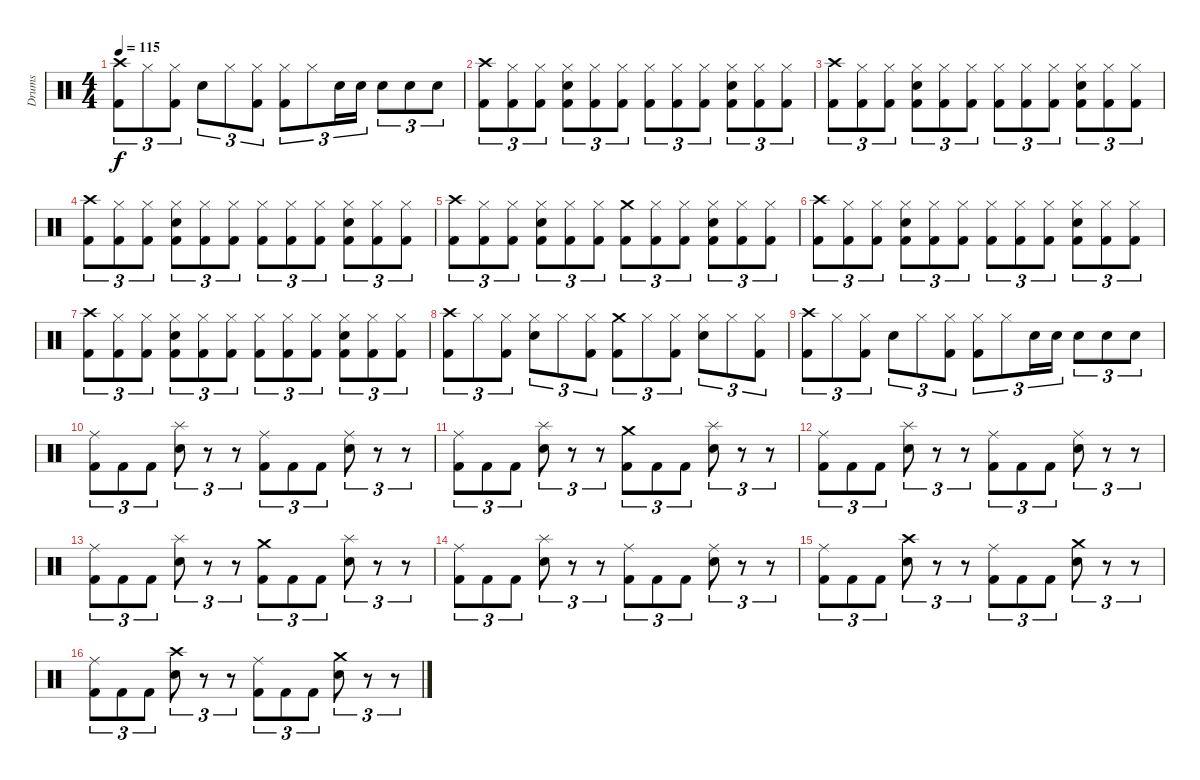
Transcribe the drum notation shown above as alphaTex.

\track ("Drums" "Drums") {instrument percussion}
\staff {score}
\articulation defaults
\ts (4 4)
\tempo 115
\clef neutral
\ks c
("Crash high (hit)" "Kick (hit) 2").8{tu (3 2) dy f} "Hi-Hat (closed)".8{tu (3 2)} ("Hi-Hat (closed)" "Kick (hit) 2").8{tu (3 2)} "Snare (hit) 2".8{tu (3 2)} "Hi-Hat (closed)".8{tu (3 2)} ("Hi-Hat (closed)" "Kick (hit) 2").8{tu (3 2)} ("Hi-Hat (closed)" "Kick (hit) 2").8{tu (3 2)} "Hi-Hat (closed)".8{tu (3 2)} "Snare (hit) 2".16{tu (3 2)} "Snare (hit) 2".16{tu (3 2)} "Snare (hit) 2".8{tu (3 2)} "Snare (hit) 2".8{tu (3 2)} "Snare (hit) 2".8{tu (3 2)} |
("Crash high (hit)" "Kick (hit) 2").8{tu (3 2)} ("Hi-Hat (closed)" "Kick (hit) 2").8{tu (3 2)} ("Hi-Hat (closed)" "Kick (hit) 2").8{tu (3 2)} ("Hi-Hat (closed)" "Snare (hit) 2" "Kick (hit) 2").8{tu (3 2)} ("Hi-Hat (closed)" "Kick (hit) 2").8{tu (3 2)} ("Hi-Hat (closed)" "Kick (hit) 2").8{tu (3 2)} ("Hi-Hat (closed)" "Kick (hit) 2").8{tu (3 2)} ("Hi-Hat (closed)" "Kick (hit) 2").8{tu (3 2)} ("Hi-Hat (closed)" "Kick (hit) 2").8{tu (3 2)} ("Hi-Hat (closed)" "Snare (hit) 2" "Kick (hit) 2").8{tu (3 2)} ("Hi-Hat (closed)" "Kick (hit) 2").8{tu (3 2)} ("Hi-Hat (closed)" "Kick (hit) 2").8{tu (3 2)} |
("Crash high (hit)" "Kick (hit) 2").8{tu (3 2)} ("Hi-Hat (closed)" "Kick (hit) 2").8{tu (3 2)} ("Hi-Hat (closed)" "Kick (hit) 2").8{tu (3 2)} ("Hi-Hat (closed)" "Snare (hit) 2" "Kick (hit) 2").8{tu (3 2)} ("Hi-Hat (closed)" "Kick (hit) 2").8{tu (3 2)} ("Hi-Hat (closed)" "Kick (hit) 2").8{tu (3 2)} ("Hi-Hat (closed)" "Kick (hit) 2").8{tu (3 2)} ("Hi-Hat (closed)" "Kick (hit) 2").8{tu (3 2)} ("Hi-Hat (closed)" "Kick (hit) 2").8{tu (3 2)} ("Hi-Hat (closed)" "Snare (hit) 2" "Kick (hit) 2").8{tu (3 2)} ("Hi-Hat (closed)" "Kick (hit) 2").8{tu (3 2)} ("Hi-Hat (closed)" "Kick (hit) 2").8{tu (3 2)} |
("Crash high (hit)" "Kick (hit) 2").8{tu (3 2)} ("Hi-Hat (closed)" "Kick (hit) 2").8{tu (3 2)} ("Hi-Hat (closed)" "Kick (hit) 2").8{tu (3 2)} ("Hi-Hat (closed)" "Snare (hit) 2" "Kick (hit) 2").8{tu (3 2)} ("Hi-Hat (closed)" "Kick (hit) 2").8{tu (3 2)} ("Hi-Hat (closed)" "Kick (hit) 2").8{tu (3 2)} ("Hi-Hat (closed)" "Kick (hit) 2").8{tu (3 2)} ("Hi-Hat (closed)" "Kick (hit) 2").8{tu (3 2)} ("Hi-Hat (closed)" "Kick (hit) 2").8{tu (3 2)} ("Hi-Hat (closed)" "Snare (hit) 2" "Kick (hit) 2").8{tu (3 2)} ("Hi-Hat (closed)" "Kick (hit) 2").8{tu (3 2)} ("Hi-Hat (closed)" "Kick (hit) 2").8{tu (3 2)} |
("Crash high (hit)" "Kick (hit) 2").8{tu (3 2)} ("Hi-Hat (closed)" "Kick (hit) 2").8{tu (3 2)} ("Hi-Hat (closed)" "Kick (hit) 2").8{tu (3 2)} ("Hi-Hat (closed)" "Snare (hit) 2" "Kick (hit) 2").8{tu (3 2)} ("Hi-Hat (closed)" "Kick (hit) 2").8{tu (3 2)} ("Hi-Hat (closed)" "Kick (hit) 2").8{tu (3 2)} ("Crash medium (hit)" "Kick (hit) 2").8{tu (3 2)} ("Hi-Hat (closed)" "Kick (hit) 2").8{tu (3 2)} ("Hi-Hat (closed)" "Kick (hit) 2").8{tu (3 2)} ("Hi-Hat (closed)" "Snare (hit) 2" "Kick (hit) 2").8{tu (3 2)} ("Hi-Hat (closed)" "Kick (hit) 2").8{tu (3 2)} ("Hi-Hat (closed)" "Kick (hit) 2").8{tu (3 2)} |
("Crash high (hit)" "Kick (hit) 2").8{tu (3 2)} ("Hi-Hat (closed)" "Kick (hit) 2").8{tu (3 2)} ("Hi-Hat (closed)" "Kick (hit) 2").8{tu (3 2)} ("Hi-Hat (closed)" "Snare (hit) 2" "Kick (hit) 2").8{tu (3 2)} ("Hi-Hat (closed)" "Kick (hit) 2").8{tu (3 2)} ("Hi-Hat (closed)" "Kick (hit) 2").8{tu (3 2)} ("Hi-Hat (closed)" "Kick (hit) 2").8{tu (3 2)} ("Hi-Hat (closed)" "Kick (hit) 2").8{tu (3 2)} ("Hi-Hat (closed)" "Kick (hit) 2").8{tu (3 2)} ("Hi-Hat (closed)" "Snare (hit) 2" "Kick (hit) 2").8{tu (3 2)} ("Hi-Hat (closed)" "Kick (hit) 2").8{tu (3 2)} ("Hi-Hat (closed)" "Kick (hit) 2").8{tu (3 2)} |
("Crash high (hit)" "Kick (hit) 2").8{tu (3 2)} ("Hi-Hat (closed)" "Kick (hit) 2").8{tu (3 2)} ("Hi-Hat (closed)" "Kick (hit) 2").8{tu (3 2)} ("Hi-Hat (closed)" "Snare (hit) 2" "Kick (hit) 2").8{tu (3 2)} ("Hi-Hat (closed)" "Kick (hit) 2").8{tu (3 2)} ("Hi-Hat (closed)" "Kick (hit) 2").8{tu (3 2)} ("Hi-Hat (closed)" "Kick (hit) 2").8{tu (3 2)} ("Hi-Hat (closed)" "Kick (hit) 2").8{tu (3 2)} ("Hi-Hat (closed)" "Kick (hit) 2").8{tu (3 2)} ("Hi-Hat (closed)" "Snare (hit) 2" "Kick (hit) 2").8{tu (3 2)} ("Hi-Hat (closed)" "Kick (hit) 2").8{tu (3 2)} ("Hi-Hat (closed)" "Kick (hit) 2").8{tu (3 2)} |
("Crash high (hit)" "Kick (hit) 2").8{tu (3 2)} "Hi-Hat (closed)".8{tu (3 2)} ("Hi-Hat (closed)" "Kick (hit) 2").8{tu (3 2)} ("Hi-Hat (closed)" "Snare (hit) 2").8{tu (3 2)} "Hi-Hat (closed)".8{tu (3 2)} ("Hi-Hat (closed)" "Kick (hit) 2").8{tu (3 2)} ("Crash medium (hit)" "Kick (hit) 2").8{tu (3 2)} "Hi-Hat (closed)".8{tu (3 2)} ("Hi-Hat (closed)" "Kick (hit) 2").8{tu (3 2)} ("Hi-Hat (closed)" "Snare (hit) 2").8{tu (3 2)} "Hi-Hat (closed)".8{tu (3 2)} ("Hi-Hat (closed)" "Kick (hit) 2").8{tu (3 2)} |
("Crash high (hit)" "Kick (hit) 2").8{tu (3 2)} "Hi-Hat (closed)".8{tu (3 2)} ("Hi-Hat (closed)" "Kick (hit) 2").8{tu (3 2)} "Snare (hit) 2".8{tu (3 2)} "Hi-Hat (closed)".8{tu (3 2)} ("Hi-Hat (closed)" "Kick (hit) 2").8{tu (3 2)} ("Hi-Hat (closed)" "Kick (hit) 2").8{tu (3 2)} "Hi-Hat (closed)".8{tu (3 2)} "Snare (hit) 2".16{tu (3 2)} "Snare (hit) 2".16{tu (3 2)} "Snare (hit) 2".8{tu (3 2)} "Snare (hit) 2".8{tu (3 2)} "Snare (hit) 2".8{tu (3 2)} |
("Ride (middle)" "Kick (hit) 2").8{tu (3 2)} "Kick (hit) 2".8{tu (3 2)} "Kick (hit) 2".8{tu (3 2)} ("Splash (hit)" "Snare (hit) 2").8{tu (3 2)} r.8{tu (3 2)} r.8{tu (3 2)} ("Ride (middle)" "Kick (hit) 2").8{tu (3 2)} "Kick (hit) 2".8{tu (3 2)} "Kick (hit) 2".8{tu (3 2)} ("Ride (middle)" "Snare (hit) 2").8{tu (3 2)} r.8{tu (3 2)} r.8{tu (3 2)} |
("Ride (middle)" "Kick (hit) 2").8{tu (3 2)} "Kick (hit) 2".8{tu (3 2)} "Kick (hit) 2".8{tu (3 2)} ("Splash (hit)" "Snare (hit) 2").8{tu (3 2)} r.8{tu (3 2)} r.8{tu (3 2)} ("Crash medium (hit)" "Kick (hit) 2").8{tu (3 2)} "Kick (hit) 2".8{tu (3 2)} "Kick (hit) 2".8{tu (3 2)} ("Splash (hit)" "Snare (hit) 2").8{tu (3 2)} r.8{tu (3 2)} r.8{tu (3 2)} |
("Ride (middle)" "Kick (hit) 2").8{tu (3 2)} "Kick (hit) 2".8{tu (3 2)} "Kick (hit) 2".8{tu (3 2)} ("Splash (hit)" "Snare (hit) 2").8{tu (3 2)} r.8{tu (3 2)} r.8{tu (3 2)} ("Ride (middle)" "Kick (hit) 2").8{tu (3 2)} "Kick (hit) 2".8{tu (3 2)} "Kick (hit) 2".8{tu (3 2)} ("Ride (middle)" "Snare (hit) 2").8{tu (3 2)} r.8{tu (3 2)} r.8{tu (3 2)} |
("Ride (middle)" "Kick (hit) 2").8{tu (3 2)} "Kick (hit) 2".8{tu (3 2)} "Kick (hit) 2".8{tu (3 2)} ("Splash (hit)" "Snare (hit) 2").8{tu (3 2)} r.8{tu (3 2)} r.8{tu (3 2)} ("Crash medium (hit)" "Kick (hit) 2").8{tu (3 2)} "Kick (hit) 2".8{tu (3 2)} "Kick (hit) 2".8{tu (3 2)} ("Splash (hit)" "Snare (hit) 2").8{tu (3 2)} r.8{tu (3 2)} r.8{tu (3 2)} |
("Ride (middle)" "Kick (hit) 2").8{tu (3 2)} "Kick (hit) 2".8{tu (3 2)} "Kick (hit) 2".8{tu (3 2)} ("Splash (hit)" "Snare (hit) 2").8{tu (3 2)} r.8{tu (3 2)} r.8{tu (3 2)} ("Ride (middle)" "Kick (hit) 2").8{tu (3 2)} "Kick (hit) 2".8{tu (3 2)} "Kick (hit) 2".8{tu (3 2)} ("Ride (middle)" "Snare (hit) 2").8{tu (3 2)} r.8{tu (3 2)} r.8{tu (3 2)} |
("Ride (middle)" "Kick (hit) 2").8{tu (3 2)} "Kick (hit) 2".8{tu (3 2)} "Kick (hit) 2".8{tu (3 2)} ("Crash high (hit)" "Snare (hit) 2").8{tu (3 2)} r.8{tu (3 2)} r.8{tu (3 2)} ("Ride (middle)" "Kick (hit) 2").8{tu (3 2)} "Kick (hit) 2".8{tu (3 2)} "Kick (hit) 2".8{tu (3 2)} ("Crash medium (hit)" "Snare (hit) 2").8{tu (3 2)} r.8{tu (3 2)} r.8{tu (3 2)} |
("Ride (middle)" "Kick (hit) 2").8{tu (3 2)} "Kick (hit) 2".8{tu (3 2)} "Kick (hit) 2".8{tu (3 2)} ("Crash high (hit)" "Snare (hit) 2").8{tu (3 2)} r.8{tu (3 2)} r.8{tu (3 2)} ("Ride (middle)" "Kick (hit) 2").8{tu (3 2)} "Kick (hit) 2".8{tu (3 2)} "Kick (hit) 2".8{tu (3 2)} ("Crash medium (hit)" "Snare (hit) 2").8{tu (3 2)} r.8{tu (3 2)} r.8{tu (3 2)}
